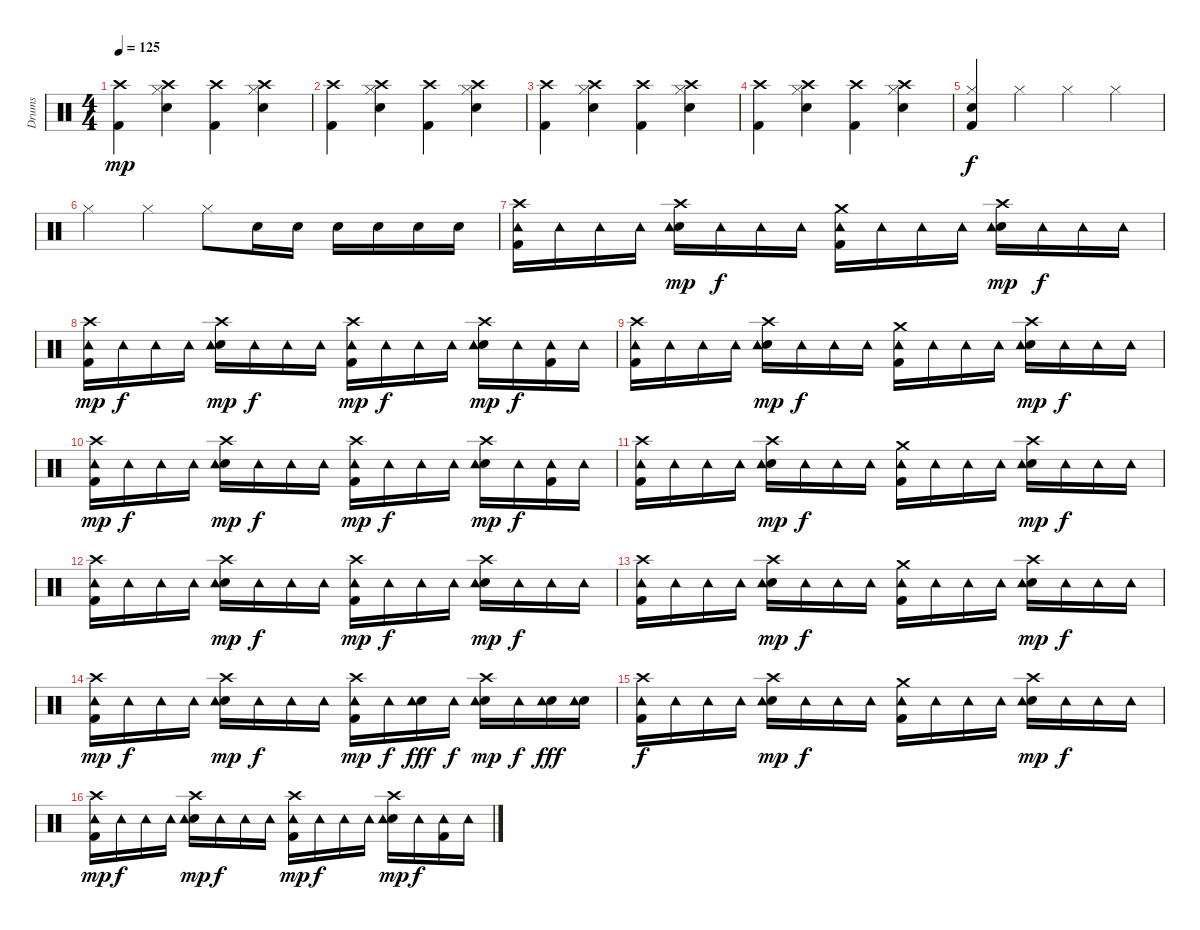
\track ("Drums" "Drums") {instrument percussion}
\staff {score}
\articulation defaults
\ts (4 4)
\tempo 125
\clef neutral
\ks c
("Crash high (hit)" "Kick (hit) 2").4{dy mp} ("Crash high (hit)" "Snare (hit) 2" "Hi-Hat (closed)").4 ("Crash high (hit)" "Kick (hit) 2").4 ("Crash high (hit)" "Snare (hit) 2" "Hi-Hat (closed)").4 |
("Crash high (hit)" "Kick (hit) 2").4 ("Crash high (hit)" "Snare (hit) 2" "Hi-Hat (closed)").4 ("Crash high (hit)" "Kick (hit) 2").4 ("Crash high (hit)" "Snare (hit) 2" "Hi-Hat (closed)").4 |
("Crash high (hit)" "Kick (hit) 2").4 ("Crash high (hit)" "Snare (hit) 2" "Hi-Hat (closed)").4 ("Crash high (hit)" "Kick (hit) 2").4 ("Crash high (hit)" "Snare (hit) 2" "Hi-Hat (closed)").4 |
("Crash high (hit)" "Kick (hit) 2").4 ("Crash high (hit)" "Snare (hit) 2" "Hi-Hat (closed)").4 ("Crash high (hit)" "Kick (hit) 2").4 ("Crash high (hit)" "Snare (hit) 2" "Hi-Hat (closed)").4 |
("Hi-Hat (closed)" "Kick (hit) 2" "Electric Snare (hit)").4{dy f} "Hi-Hat (closed)".4 "Hi-Hat (closed)".4 "Hi-Hat (closed)".4 |
"Hi-Hat (closed)".4 "Hi-Hat (closed)".4 "Hi-Hat (closed)".8 "Snare (hit) 2".16 "Snare (hit) 2".16 "Snare (hit) 2".16 "Snare (hit) 2".16 "Snare (hit) 2".16 "Snare (hit) 2".16 |
("Crash high (hit)" "Kick (hit) 2" "Tambourine (hit)").16 "Tambourine (hit)".16 "Tambourine (hit)".16 "Tambourine (hit)".16 ("Crash high (hit)" "Snare (hit) 2" "Tambourine (hit)").16{dy mp} "Tambourine (hit)".16{dy f} "Tambourine (hit)".16 "Tambourine (hit)".16 ("Crash medium (hit)" "Kick (hit) 2" "Tambourine (hit)").16 "Tambourine (hit)".16 "Tambourine (hit)".16 "Tambourine (hit)".16 ("Crash high (hit)" "Snare (hit) 2" "Tambourine (hit)").16{dy mp} "Tambourine (hit)".16{dy f} "Tambourine (hit)".16 "Tambourine (hit)".16 |
("Crash high (hit)" "Kick (hit) 2" "Tambourine (hit)").16{dy mp} "Tambourine (hit)".16{dy f} "Tambourine (hit)".16 "Tambourine (hit)".16 ("Crash high (hit)" "Snare (hit) 2" "Tambourine (hit)").16{dy mp} "Tambourine (hit)".16{dy f} "Tambourine (hit)".16 "Tambourine (hit)".16 ("Crash high (hit)" "Kick (hit) 2" "Tambourine (hit)").16{dy mp} "Tambourine (hit)".16{dy f} "Tambourine (hit)".16 "Tambourine (hit)".16 ("Crash high (hit)" "Snare (hit) 2" "Tambourine (hit)").16{dy mp} "Tambourine (hit)".16{dy f} ("Kick (hit) 2" "Tambourine (hit)").16 "Tambourine (hit)".16 |
("Crash high (hit)" "Kick (hit) 2" "Tambourine (hit)").16 "Tambourine (hit)".16 "Tambourine (hit)".16 "Tambourine (hit)".16 ("Crash high (hit)" "Snare (hit) 2" "Tambourine (hit)").16{dy mp} "Tambourine (hit)".16{dy f} "Tambourine (hit)".16 "Tambourine (hit)".16 ("Crash medium (hit)" "Kick (hit) 2" "Tambourine (hit)").16 "Tambourine (hit)".16 "Tambourine (hit)".16 "Tambourine (hit)".16 ("Crash high (hit)" "Snare (hit) 2" "Tambourine (hit)").16{dy mp} "Tambourine (hit)".16{dy f} "Tambourine (hit)".16 "Tambourine (hit)".16 |
("Crash high (hit)" "Kick (hit) 2" "Tambourine (hit)").16{dy mp} "Tambourine (hit)".16{dy f} "Tambourine (hit)".16 "Tambourine (hit)".16 ("Crash high (hit)" "Snare (hit) 2" "Tambourine (hit)").16{dy mp} "Tambourine (hit)".16{dy f} "Tambourine (hit)".16 "Tambourine (hit)".16 ("Crash high (hit)" "Kick (hit) 2" "Tambourine (hit)").16{dy mp} "Tambourine (hit)".16{dy f} "Tambourine (hit)".16 "Tambourine (hit)".16 ("Crash high (hit)" "Snare (hit) 2" "Tambourine (hit)").16{dy mp} "Tambourine (hit)".16{dy f} ("Kick (hit) 2" "Tambourine (hit)").16 "Tambourine (hit)".16 |
("Crash high (hit)" "Kick (hit) 2" "Tambourine (hit)").16 "Tambourine (hit)".16 "Tambourine (hit)".16 "Tambourine (hit)".16 ("Crash high (hit)" "Snare (hit) 2" "Tambourine (hit)").16{dy mp} "Tambourine (hit)".16{dy f} "Tambourine (hit)".16 "Tambourine (hit)".16 ("Crash medium (hit)" "Kick (hit) 2" "Tambourine (hit)").16 "Tambourine (hit)".16 "Tambourine (hit)".16 "Tambourine (hit)".16 ("Crash high (hit)" "Snare (hit) 2" "Tambourine (hit)").16{dy mp} "Tambourine (hit)".16{dy f} "Tambourine (hit)".16 "Tambourine (hit)".16 |
("Crash high (hit)" "Kick (hit) 2" "Tambourine (hit)").16 "Tambourine (hit)".16 "Tambourine (hit)".16 "Tambourine (hit)".16 ("Crash high (hit)" "Snare (hit) 2" "Tambourine (hit)").16{dy mp} "Tambourine (hit)".16{dy f} "Tambourine (hit)".16 "Tambourine (hit)".16 ("Crash high (hit)" "Kick (hit) 2" "Tambourine (hit)").16{dy mp} "Tambourine (hit)".16{dy f} "Tambourine (hit)".16 "Tambourine (hit)".16 ("Crash high (hit)" "Snare (hit) 2" "Tambourine (hit)").16{dy mp} "Tambourine (hit)".16{dy f} "Tambourine (hit)".16 "Tambourine (hit)".16 |
("Crash high (hit)" "Kick (hit) 2" "Tambourine (hit)").16 "Tambourine (hit)".16 "Tambourine (hit)".16 "Tambourine (hit)".16 ("Crash high (hit)" "Snare (hit) 2" "Tambourine (hit)").16{dy mp} "Tambourine (hit)".16{dy f} "Tambourine (hit)".16 "Tambourine (hit)".16 ("Crash medium (hit)" "Kick (hit) 2" "Tambourine (hit)").16 "Tambourine (hit)".16 "Tambourine (hit)".16 "Tambourine (hit)".16 ("Crash high (hit)" "Snare (hit) 2" "Tambourine (hit)").16{dy mp} "Tambourine (hit)".16{dy f} "Tambourine (hit)".16 "Tambourine (hit)".16 |
("Crash high (hit)" "Kick (hit) 2" "Tambourine (hit)").16{dy mp} "Tambourine (hit)".16{dy f} "Tambourine (hit)".16 "Tambourine (hit)".16 ("Crash high (hit)" "Snare (hit) 2" "Tambourine (hit)").16{dy mp} "Tambourine (hit)".16{dy f} "Tambourine (hit)".16 "Tambourine (hit)".16 ("Crash high (hit)" "Kick (hit) 2" "Tambourine (hit)").16{dy mp} "Tambourine (hit)".16{dy f} ("Snare (hit) 2" "Tambourine (hit)").16{dy fff} "Tambourine (hit)".16{dy f} ("Crash high (hit)" "Snare (hit) 2" "Tambourine (hit)").16{dy mp} "Tambourine (hit)".16{dy f} ("Snare (hit) 2" "Tambourine (hit)").16{dy fff} ("Snare (hit) 2" "Tambourine (hit)").16 |
("Crash high (hit)" "Kick (hit) 2" "Tambourine (hit)").16{dy f} "Tambourine (hit)".16 "Tambourine (hit)".16 "Tambourine (hit)".16 ("Crash high (hit)" "Snare (hit) 2" "Tambourine (hit)").16{dy mp} "Tambourine (hit)".16{dy f} "Tambourine (hit)".16 "Tambourine (hit)".16 ("Crash medium (hit)" "Kick (hit) 2" "Tambourine (hit)").16 "Tambourine (hit)".16 "Tambourine (hit)".16 "Tambourine (hit)".16 ("Crash high (hit)" "Snare (hit) 2" "Tambourine (hit)").16{dy mp} "Tambourine (hit)".16{dy f} "Tambourine (hit)".16 "Tambourine (hit)".16 |
("Crash high (hit)" "Kick (hit) 2" "Tambourine (hit)").16{dy mp} "Tambourine (hit)".16{dy f} "Tambourine (hit)".16 "Tambourine (hit)".16 ("Crash high (hit)" "Snare (hit) 2" "Tambourine (hit)").16{dy mp} "Tambourine (hit)".16{dy f} "Tambourine (hit)".16 "Tambourine (hit)".16 ("Crash high (hit)" "Kick (hit) 2" "Tambourine (hit)").16{dy mp} "Tambourine (hit)".16{dy f} "Tambourine (hit)".16 "Tambourine (hit)".16 ("Crash high (hit)" "Snare (hit) 2" "Tambourine (hit)").16{dy mp} "Tambourine (hit)".16{dy f} ("Kick (hit) 2" "Tambourine (hit)").16 "Tambourine (hit)".16
